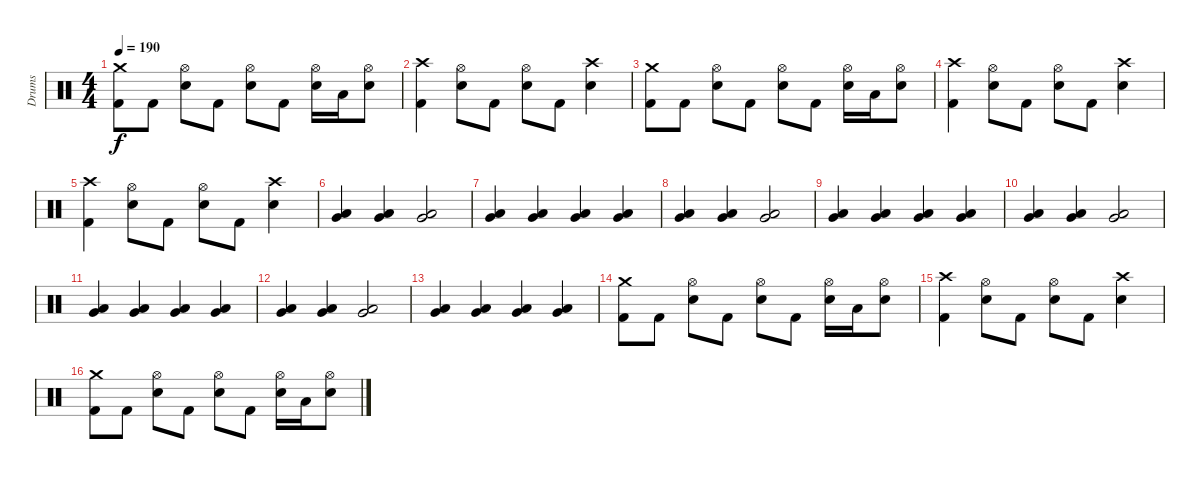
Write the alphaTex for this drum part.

\track ("Drums" "Drums") {instrument percussion}
\staff {score}
\articulation defaults
\ts (4 4)
\tempo 190
\clef neutral
\ks c
("Crash medium (hit)" "Kick (hit) 2").8{dy f} "Kick (hit) 2".8 ("Hi-Hat (open)" "Snare (hit) 2").8 "Kick (hit) 2".8 ("Hi-Hat (open)" "Snare (hit) 2").8 "Kick (hit) 2".8 ("Hi-Hat (open)" "Snare (hit) 2").16 "Low Tom (hit)".16 ("Hi-Hat (open)" "Snare (hit) 2").8 |
("Crash high (hit)" "Kick (hit) 2").4 ("Hi-Hat (open)" "Snare (hit) 2").8 "Kick (hit) 2".8 ("Hi-Hat (open)" "Snare (hit) 2").8 "Kick (hit) 2".8 ("Crash high (hit)" "Snare (hit) 2").4 |
("Crash medium (hit)" "Kick (hit) 2").8 "Kick (hit) 2".8 ("Hi-Hat (open)" "Snare (hit) 2").8 "Kick (hit) 2".8 ("Hi-Hat (open)" "Snare (hit) 2").8 "Kick (hit) 2".8 ("Hi-Hat (open)" "Snare (hit) 2").16 "Low Tom (hit)".16 ("Hi-Hat (open)" "Snare (hit) 2").8 |
("Crash high (hit)" "Kick (hit) 2").4 ("Hi-Hat (open)" "Snare (hit) 2").8 "Kick (hit) 2".8 ("Hi-Hat (open)" "Snare (hit) 2").8 "Kick (hit) 2".8 ("Crash high (hit)" "Snare (hit) 2").4 |
("Crash high (hit)" "Kick (hit) 2").4 ("Hi-Hat (open)" "Snare (hit) 2").8 "Kick (hit) 2".8 ("Hi-Hat (open)" "Snare (hit) 2").8 "Kick (hit) 2".8 ("Crash high (hit)" "Snare (hit) 2").4 |
("Very Low Tom (hit)" "Low Tom (hit)").4 ("Very Low Tom (hit)" "Low Tom (hit)").4 ("Very Low Tom (hit)" "Low Tom (hit)").2 |
("Very Low Tom (hit)" "Low Tom (hit)").4 ("Very Low Tom (hit)" "Low Tom (hit)").4 ("Very Low Tom (hit)" "Low Tom (hit)").4 ("Very Low Tom (hit)" "Low Tom (hit)").4 |
("Very Low Tom (hit)" "Low Tom (hit)").4 ("Very Low Tom (hit)" "Low Tom (hit)").4 ("Very Low Tom (hit)" "Low Tom (hit)").2 |
("Very Low Tom (hit)" "Low Tom (hit)").4 ("Very Low Tom (hit)" "Low Tom (hit)").4 ("Very Low Tom (hit)" "Low Tom (hit)").4 ("Very Low Tom (hit)" "Low Tom (hit)").4 |
("Very Low Tom (hit)" "Low Tom (hit)").4 ("Very Low Tom (hit)" "Low Tom (hit)").4 ("Very Low Tom (hit)" "Low Tom (hit)").2 |
("Very Low Tom (hit)" "Low Tom (hit)").4 ("Very Low Tom (hit)" "Low Tom (hit)").4 ("Very Low Tom (hit)" "Low Tom (hit)").4 ("Very Low Tom (hit)" "Low Tom (hit)").4 |
("Very Low Tom (hit)" "Low Tom (hit)").4 ("Very Low Tom (hit)" "Low Tom (hit)").4 ("Very Low Tom (hit)" "Low Tom (hit)").2 |
("Very Low Tom (hit)" "Low Tom (hit)").4 ("Very Low Tom (hit)" "Low Tom (hit)").4 ("Very Low Tom (hit)" "Low Tom (hit)").4 ("Very Low Tom (hit)" "Low Tom (hit)").4 |
("Crash medium (hit)" "Kick (hit) 2").8 "Kick (hit) 2".8 ("Hi-Hat (open)" "Snare (hit) 2").8 "Kick (hit) 2".8 ("Hi-Hat (open)" "Snare (hit) 2").8 "Kick (hit) 2".8 ("Hi-Hat (open)" "Snare (hit) 2").16 "Low Tom (hit)".16 ("Hi-Hat (open)" "Snare (hit) 2").8 |
("Crash high (hit)" "Kick (hit) 2").4 ("Hi-Hat (open)" "Snare (hit) 2").8 "Kick (hit) 2".8 ("Hi-Hat (open)" "Snare (hit) 2").8 "Kick (hit) 2".8 ("Crash high (hit)" "Snare (hit) 2").4 |
("Crash medium (hit)" "Kick (hit) 2").8 "Kick (hit) 2".8 ("Hi-Hat (open)" "Snare (hit) 2").8 "Kick (hit) 2".8 ("Hi-Hat (open)" "Snare (hit) 2").8 "Kick (hit) 2".8 ("Hi-Hat (open)" "Snare (hit) 2").16 "Low Tom (hit)".16 ("Hi-Hat (open)" "Snare (hit) 2").8
